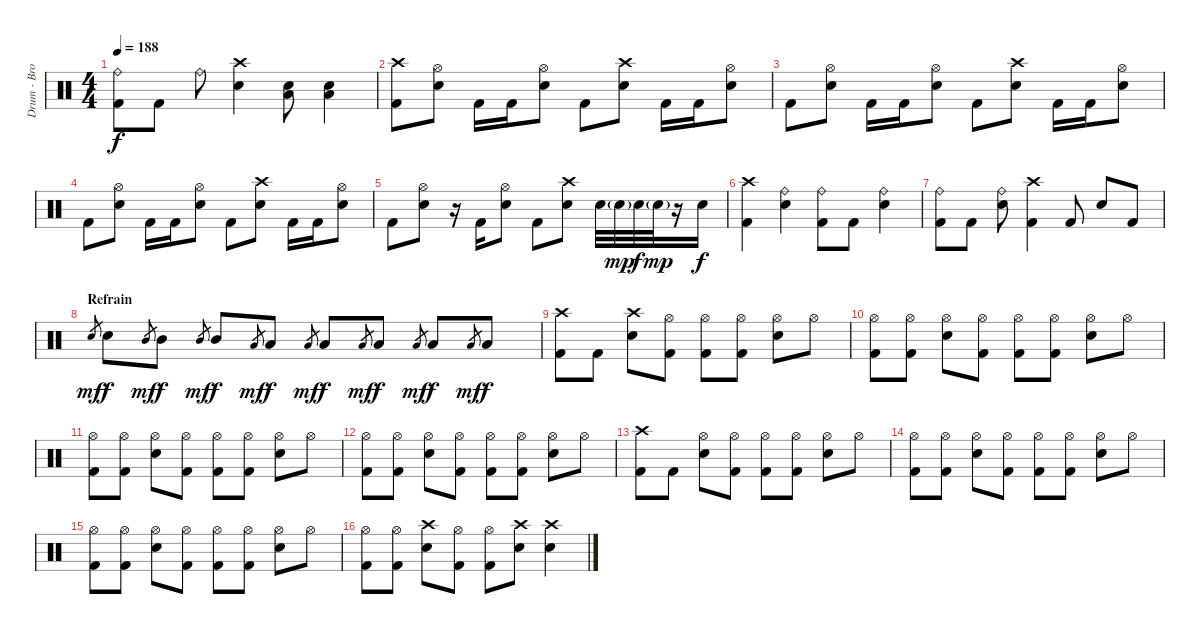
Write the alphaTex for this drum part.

\track ("Drum - Brooks Wackerman" "Drum - Bro") {instrument percussion}
\staff {score}
\articulation defaults
\ts (4 4)
\tempo 188
\clef neutral
\ks c
("Ride (bell)" "Kick (hit) 2").8{dy f} "Kick (hit) 2".8 "Ride (bell)".8 ("Crash high (hit)" "Electric Snare (hit)").4 ("Electric Snare (hit)" "Low Floor Tom (hit)").8 ("Electric Snare (hit)" "Low Floor Tom (hit)").4 |
("Crash high (hit)" "Kick (hit) 2").8 ("Hi-Hat (open)" "Electric Snare (hit)").8 "Kick (hit) 2".16 "Kick (hit) 2".16 ("Hi-Hat (open)" "Electric Snare (hit)").8 "Kick (hit) 2".8 ("Crash high (hit)" "Electric Snare (hit)").8 "Kick (hit) 2".16 "Kick (hit) 2".16 ("Hi-Hat (open)" "Electric Snare (hit)").8 |
"Kick (hit) 2".8 ("Hi-Hat (open)" "Electric Snare (hit)").8 "Kick (hit) 2".16 "Kick (hit) 2".16 ("Hi-Hat (open)" "Electric Snare (hit)").8 "Kick (hit) 2".8 ("Crash high (hit)" "Electric Snare (hit)").8 "Kick (hit) 2".16 "Kick (hit) 2".16 ("Hi-Hat (open)" "Electric Snare (hit)").8 |
"Kick (hit) 2".8 ("Hi-Hat (open)" "Electric Snare (hit)").8 "Kick (hit) 2".16 "Kick (hit) 2".16 ("Hi-Hat (open)" "Electric Snare (hit)").8 "Kick (hit) 2".8 ("Crash high (hit)" "Electric Snare (hit)").8 "Kick (hit) 2".16 "Kick (hit) 2".16 ("Hi-Hat (open)" "Electric Snare (hit)").8 |
"Kick (hit) 2".8 ("Hi-Hat (open)" "Electric Snare (hit)").8 r.16 "Kick (hit) 2".16 ("Hi-Hat (open)" "Electric Snare (hit)").8 "Kick (hit) 2".8 ("Crash high (hit)" "Electric Snare (hit)").8 "Electric Snare (hit)".32 "Electric Snare (hit)"{g}.32{dy mp} "Electric Snare (hit)".32{dy f} "Electric Snare (hit)"{g}.32{dy mp} r.16 "Electric Snare (hit)".16{dy f} |
("Crash high (hit)" "Kick (hit) 2").4 ("Ride (bell)" "Electric Snare (hit)").4 ("Ride (bell)" "Kick (hit) 2").8 "Kick (hit) 2".8 ("Ride (bell)" "Electric Snare (hit)").4 |
("Ride (bell)" "Kick (hit) 2").8 "Kick (hit) 2".8 ("Ride (bell)" "Electric Snare (hit)").8 ("Crash high (hit)" "Kick (hit) 2").4 "Kick (hit) 2".8 "Electric Snare (hit)".8 "Kick (hit) 2".8 |
\section ("" "Refrain")
"Electric Snare (hit)".8{gr dy mf} "Electric Snare (hit)".8{dy f} "Mid Tom (hit)".8{gr dy mf} "Mid Tom (hit)".8{dy f} "Mid Tom (hit)".8{gr dy mf} "Mid Tom (hit)".8{dy f} "Low Tom (hit)".8{gr dy mf} "Low Tom (hit)".8{dy f} "Low Tom (hit)".8{gr dy mf} "Low Tom (hit)".8{dy f} "Low Floor Tom (hit)".8{gr dy mf} "Low Floor Tom (hit)".8{dy f} "Low Floor Tom (hit)".8{gr dy mf} "Low Floor Tom (hit)".8{dy f} "Low Floor Tom (hit)".8{gr dy mf} "Low Floor Tom (hit)".8{dy f} |
("Crash high (hit)" "Kick (hit) 2").8 "Kick (hit) 2".8 ("Crash high (hit)" "Electric Snare (hit)").8 ("Hi-Hat (open)" "Kick (hit) 2").8 ("Hi-Hat (open)" "Kick (hit) 2").8 ("Hi-Hat (open)" "Kick (hit) 2").8 ("Hi-Hat (open)" "Electric Snare (hit)").8 "Hi-Hat (open)".8 |
("Hi-Hat (open)" "Kick (hit) 2").8 ("Hi-Hat (open)" "Kick (hit) 2").8 ("Hi-Hat (open)" "Electric Snare (hit)").8 ("Hi-Hat (open)" "Kick (hit) 2").8 ("Hi-Hat (open)" "Kick (hit) 2").8 ("Hi-Hat (open)" "Kick (hit) 2").8 ("Hi-Hat (open)" "Electric Snare (hit)").8 "Hi-Hat (open)".8 |
("Hi-Hat (open)" "Kick (hit) 2").8 ("Hi-Hat (open)" "Kick (hit) 2").8 ("Hi-Hat (open)" "Electric Snare (hit)").8 ("Hi-Hat (open)" "Kick (hit) 2").8 ("Hi-Hat (open)" "Kick (hit) 2").8 ("Hi-Hat (open)" "Kick (hit) 2").8 ("Hi-Hat (open)" "Electric Snare (hit)").8 "Hi-Hat (open)".8 |
("Hi-Hat (open)" "Kick (hit) 2").8 ("Hi-Hat (open)" "Kick (hit) 2").8 ("Hi-Hat (open)" "Electric Snare (hit)").8 ("Hi-Hat (open)" "Kick (hit) 2").8 ("Hi-Hat (open)" "Kick (hit) 2").8 ("Hi-Hat (open)" "Kick (hit) 2").8 ("Hi-Hat (open)" "Electric Snare (hit)").8 "Hi-Hat (open)".8 |
("Crash high (hit)" "Kick (hit) 2").8 "Kick (hit) 2".8 ("Hi-Hat (open)" "Electric Snare (hit)").8 ("Hi-Hat (open)" "Kick (hit) 2").8 ("Hi-Hat (open)" "Kick (hit) 2").8 ("Hi-Hat (open)" "Kick (hit) 2").8 ("Hi-Hat (open)" "Electric Snare (hit)").8 "Hi-Hat (open)".8 |
("Hi-Hat (open)" "Kick (hit) 2").8 ("Hi-Hat (open)" "Kick (hit) 2").8 ("Hi-Hat (open)" "Electric Snare (hit)").8 ("Hi-Hat (open)" "Kick (hit) 2").8 ("Hi-Hat (open)" "Kick (hit) 2").8 ("Hi-Hat (open)" "Kick (hit) 2").8 ("Hi-Hat (open)" "Electric Snare (hit)").8 "Hi-Hat (open)".8 |
("Hi-Hat (open)" "Kick (hit) 2").8 ("Hi-Hat (open)" "Kick (hit) 2").8 ("Hi-Hat (open)" "Electric Snare (hit)").8 ("Hi-Hat (open)" "Kick (hit) 2").8 ("Hi-Hat (open)" "Kick (hit) 2").8 ("Hi-Hat (open)" "Kick (hit) 2").8 ("Hi-Hat (open)" "Electric Snare (hit)").8 "Hi-Hat (open)".8 |
("Hi-Hat (open)" "Kick (hit) 2").8 ("Hi-Hat (open)" "Kick (hit) 2").8 ("Crash high (hit)" "Electric Snare (hit)").8 ("Hi-Hat (open)" "Kick (hit) 2").8 ("Hi-Hat (open)" "Kick (hit) 2").8 ("Crash high (hit)" "Electric Snare (hit)").8 ("Crash high (hit)" "Electric Snare (hit)").4
